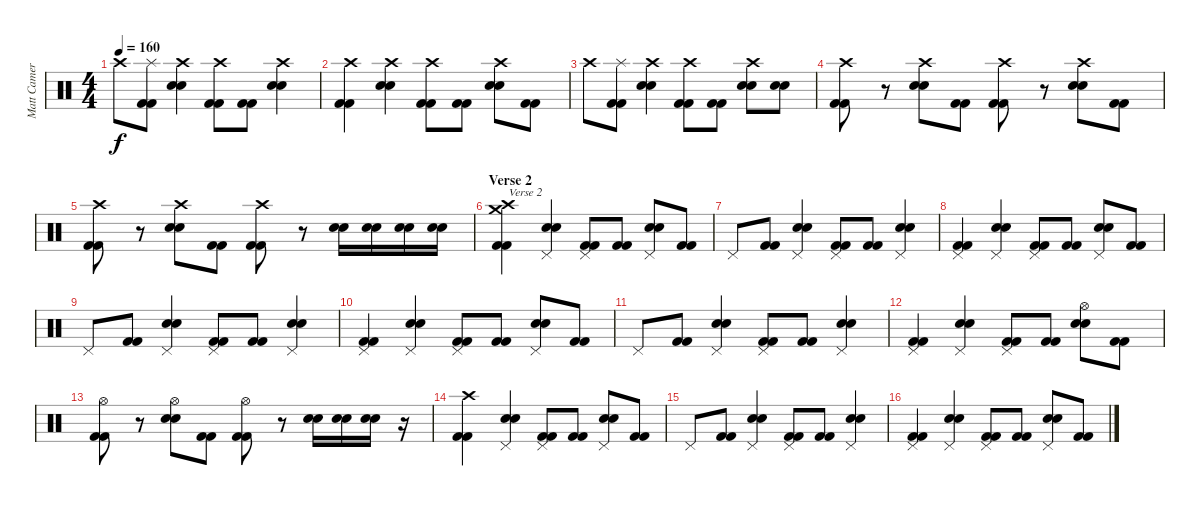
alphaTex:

\track ("Matt Cameron" "Matt Camer") {instrument percussion}
\staff {score}
\articulation defaults
\ts (4 4)
\tempo 160
\clef neutral
\ks c "Crash high (hit)".8{dy f}
("Kick (hit) 2" "Kick (hit) 2" "Splash (hit)").8 ("Electric Snare (hit)" "Electric Snare (hit)" "Crash high (hit)").4 ("Kick (hit) 2" "Kick (hit) 2" "Crash high (hit)").8 ("Kick (hit) 2" "Kick (hit) 2").8 ("Electric Snare (hit)" "Electric Snare (hit)" "Crash high (hit)").4 |
("Kick (hit) 2" "Kick (hit) 2" "Crash high (hit)").4 ("Electric Snare (hit)" "Electric Snare (hit)" "Crash high (hit)").4 ("Kick (hit) 2" "Kick (hit) 2" "Crash high (hit)").8 ("Kick (hit) 2" "Kick (hit) 2").8 ("Electric Snare (hit)" "Electric Snare (hit)" "Crash high (hit)").8 ("Kick (hit) 2" "Kick (hit) 2").8 |
"Crash high (hit)".8 ("Kick (hit) 2" "Kick (hit) 2" "Splash (hit)").8 ("Electric Snare (hit)" "Electric Snare (hit)" "Crash high (hit)").4 ("Kick (hit) 2" "Kick (hit) 2" "Crash high (hit)").8 ("Kick (hit) 2" "Kick (hit) 2").8 ("Electric Snare (hit)" "Electric Snare (hit)" "Crash high (hit)").8 ("Electric Snare (hit)" "Electric Snare (hit)").8 |
("Kick (hit) 2" "Kick (hit) 2" "Crash high (hit)").8 r.8 ("Electric Snare (hit)" "Electric Snare (hit)" "Crash high (hit)").8 ("Kick (hit) 2" "Kick (hit) 2").8 ("Kick (hit) 2" "Kick (hit) 2" "Crash high (hit)").8 r.8 ("Electric Snare (hit)" "Electric Snare (hit)" "Crash high (hit)").8 ("Kick (hit) 2" "Kick (hit) 2").8 |
("Kick (hit) 2" "Kick (hit) 2" "Crash high (hit)").8 r.8 ("Electric Snare (hit)" "Electric Snare (hit)" "Crash high (hit)").8 ("Kick (hit) 2" "Kick (hit) 2").8 ("Kick (hit) 2" "Kick (hit) 2" "Crash high (hit)").8 r.8 ("Electric Snare (hit)" "Electric Snare (hit)").16 ("Electric Snare (hit)" "Electric Snare (hit)").16 ("Electric Snare (hit)" "Electric Snare (hit)").16 ("Electric Snare (hit)" "Electric Snare (hit)").16 |
\section ("" "Verse 2")
("Crash medium (hit)" "Kick (hit) 2" "Kick (hit) 2" "Crash high (hit)").4{txt "Verse 2"} ("Electric Snare (hit)" "Electric Snare (hit)" "Pedal Hi-Hat (hit)").4 ("Kick (hit) 2" "Kick (hit) 2" "Pedal Hi-Hat (hit)").8 ("Kick (hit) 2" "Kick (hit) 2").8 ("Electric Snare (hit)" "Electric Snare (hit)" "Pedal Hi-Hat (hit)").8 ("Kick (hit) 2" "Kick (hit) 2").8 |
"Pedal Hi-Hat (hit)".8 ("Kick (hit) 2" "Kick (hit) 2").8 ("Electric Snare (hit)" "Electric Snare (hit)" "Pedal Hi-Hat (hit)").4 ("Kick (hit) 2" "Kick (hit) 2" "Pedal Hi-Hat (hit)").8 ("Kick (hit) 2" "Kick (hit) 2").8 ("Electric Snare (hit)" "Electric Snare (hit)" "Pedal Hi-Hat (hit)").4 |
("Kick (hit) 2" "Kick (hit) 2" "Pedal Hi-Hat (hit)").4 ("Electric Snare (hit)" "Electric Snare (hit)" "Pedal Hi-Hat (hit)").4 ("Kick (hit) 2" "Kick (hit) 2" "Pedal Hi-Hat (hit)").8 ("Kick (hit) 2" "Kick (hit) 2").8 ("Electric Snare (hit)" "Electric Snare (hit)" "Pedal Hi-Hat (hit)").8 ("Kick (hit) 2" "Kick (hit) 2").8 |
"Pedal Hi-Hat (hit)".8 ("Kick (hit) 2" "Kick (hit) 2").8 ("Electric Snare (hit)" "Electric Snare (hit)" "Pedal Hi-Hat (hit)").4 ("Kick (hit) 2" "Kick (hit) 2" "Pedal Hi-Hat (hit)").8 ("Kick (hit) 2" "Kick (hit) 2").8 ("Electric Snare (hit)" "Electric Snare (hit)" "Pedal Hi-Hat (hit)").4 |
("Kick (hit) 2" "Kick (hit) 2" "Pedal Hi-Hat (hit)").4 ("Electric Snare (hit)" "Electric Snare (hit)" "Pedal Hi-Hat (hit)").4 ("Kick (hit) 2" "Kick (hit) 2" "Pedal Hi-Hat (hit)").8 ("Kick (hit) 2" "Kick (hit) 2").8 ("Electric Snare (hit)" "Electric Snare (hit)" "Pedal Hi-Hat (hit)").8 ("Kick (hit) 2" "Kick (hit) 2").8 |
"Pedal Hi-Hat (hit)".8 ("Kick (hit) 2" "Kick (hit) 2").8 ("Electric Snare (hit)" "Electric Snare (hit)" "Pedal Hi-Hat (hit)").4 ("Kick (hit) 2" "Kick (hit) 2" "Pedal Hi-Hat (hit)").8 ("Kick (hit) 2" "Kick (hit) 2").8 ("Electric Snare (hit)" "Electric Snare (hit)" "Pedal Hi-Hat (hit)").4 |
("Kick (hit) 2" "Kick (hit) 2" "Pedal Hi-Hat (hit)").4 ("Electric Snare (hit)" "Electric Snare (hit)" "Pedal Hi-Hat (hit)").4 ("Kick (hit) 2" "Kick (hit) 2" "Pedal Hi-Hat (hit)").8 ("Kick (hit) 2" "Kick (hit) 2").8 ("Electric Snare (hit)" "Electric Snare (hit)" "Hi-Hat (open)").8 ("Kick (hit) 2" "Kick (hit) 2").8 |
("Kick (hit) 2" "Kick (hit) 2" "Hi-Hat (open)").8 r.8 ("Electric Snare (hit)" "Electric Snare (hit)" "Hi-Hat (open)").8 ("Kick (hit) 2" "Kick (hit) 2").8 ("Kick (hit) 2" "Kick (hit) 2" "Hi-Hat (open)").8 r.8 ("Electric Snare (hit)" "Electric Snare (hit)").16 ("Electric Snare (hit)" "Electric Snare (hit)").16 ("Electric Snare (hit)" "Electric Snare (hit)").16 r.16 |
("Crash high (hit)" "Kick (hit) 2" "Kick (hit) 2").4 ("Electric Snare (hit)" "Electric Snare (hit)" "Pedal Hi-Hat (hit)").4 ("Kick (hit) 2" "Kick (hit) 2" "Pedal Hi-Hat (hit)").8 ("Kick (hit) 2" "Kick (hit) 2").8 ("Electric Snare (hit)" "Electric Snare (hit)" "Pedal Hi-Hat (hit)").8 ("Kick (hit) 2" "Kick (hit) 2").8 |
"Pedal Hi-Hat (hit)".8 ("Kick (hit) 2" "Kick (hit) 2").8 ("Electric Snare (hit)" "Electric Snare (hit)" "Pedal Hi-Hat (hit)").4 ("Kick (hit) 2" "Kick (hit) 2" "Pedal Hi-Hat (hit)").8 ("Kick (hit) 2" "Kick (hit) 2").8 ("Electric Snare (hit)" "Electric Snare (hit)" "Pedal Hi-Hat (hit)").4 |
("Kick (hit) 2" "Kick (hit) 2" "Pedal Hi-Hat (hit)").4 ("Electric Snare (hit)" "Electric Snare (hit)" "Pedal Hi-Hat (hit)").4 ("Kick (hit) 2" "Kick (hit) 2" "Pedal Hi-Hat (hit)").8 ("Kick (hit) 2" "Kick (hit) 2").8 ("Electric Snare (hit)" "Electric Snare (hit)" "Pedal Hi-Hat (hit)").8 ("Kick (hit) 2" "Kick (hit) 2").8
